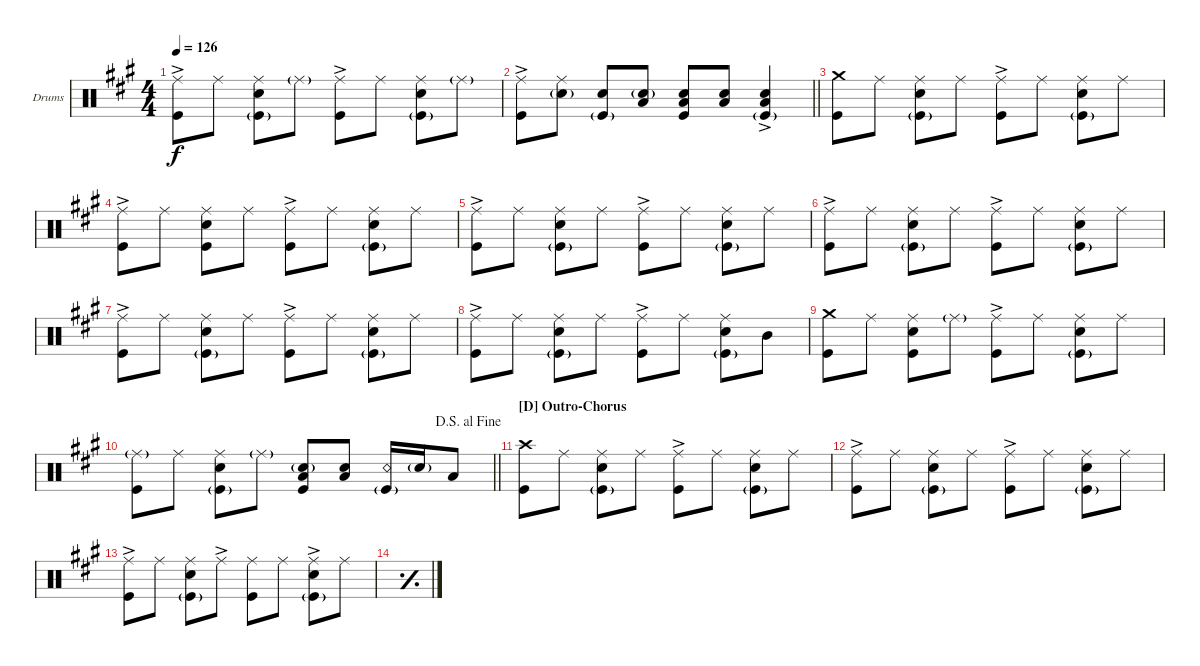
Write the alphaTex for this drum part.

\bracketExtendMode groupsimilarinstruments
\firstSystemTrackNameOrientation horizontal
\otherSystemsTrackNameOrientation horizontal
\track ("Drumkit" "Drums") {instrument percussion}
\staff {score}
\articulation defaults
\ts (4 4)
\tempo 126
\clef neutral
\ks a
("Ride (middle)"{ac} "Kick (hit)").8{dy f} "Ride (middle)".8 ("Ride (middle)" "Snare (hit) 2" "Kick (hit)"{g}).8 "Ride (middle)"{g}.8 ("Ride (middle)"{ac} "Kick (hit)").8 "Ride (middle)".8 ("Ride (middle)" "Snare (hit) 2" "Kick (hit)"{g}).8 "Ride (middle)"{g}.8 |
\barLineRight lightlight
("Ride (middle)"{ac} "Kick (hit)").8 ("Ride (middle)" "Snare (hit) 2"{g}).8 ("Snare (hit) 2" "Kick (hit)"{g}).8 ("Snare (hit) 2"{g} "Low Tom (hit)").8 ("Low Tom (hit)" "Snare (hit) 2" "Kick (hit)").8 ("Low Tom (hit)" "Snare (hit) 2").8 ("Low Tom (hit)"{ac} "Snare (hit) 2" "Kick (hit)"{g}).4 |
("Crash medium (hit)" "Kick (hit)").8 "Ride (middle)".8 ("Ride (middle)" "Snare (hit) 2" "Kick (hit)"{g}).8 "Ride (middle)".8 ("Ride (middle)"{ac} "Kick (hit)").8 "Ride (middle)".8 ("Ride (middle)" "Snare (hit) 2" "Kick (hit)"{g}).8 "Ride (middle)".8 |
("Ride (middle)"{ac} "Kick (hit)").8 "Ride (middle)".8 ("Ride (middle)" "Snare (hit) 2" "Kick (hit)").8 "Ride (middle)".8 ("Ride (middle)"{ac} "Kick (hit)").8 "Ride (middle)".8 ("Ride (middle)" "Snare (hit) 2" "Kick (hit)"{g}).8 "Ride (middle)".8 |
("Ride (middle)"{ac} "Kick (hit)").8 "Ride (middle)".8 ("Ride (middle)" "Snare (hit) 2" "Kick (hit)"{g}).8 "Ride (middle)".8 ("Ride (middle)"{ac} "Kick (hit)").8 "Ride (middle)".8 ("Ride (middle)" "Snare (hit) 2" "Kick (hit)"{g}).8 "Ride (middle)".8 |
("Ride (middle)"{ac} "Kick (hit)").8 "Ride (middle)".8 ("Ride (middle)" "Snare (hit) 2" "Kick (hit)"{g}).8 "Ride (middle)".8 ("Ride (middle)"{ac} "Kick (hit)").8 "Ride (middle)".8 ("Ride (middle)" "Snare (hit) 2" "Kick (hit)"{g}).8 "Ride (middle)".8 |
("Ride (middle)"{ac} "Kick (hit)").8 "Ride (middle)".8 ("Ride (middle)" "Snare (hit) 2" "Kick (hit)"{g}).8 "Ride (middle)".8 ("Ride (middle)"{ac} "Kick (hit)").8 "Ride (middle)".8 ("Ride (middle)" "Snare (hit) 2" "Kick (hit)"{g}).8 "Ride (middle)".8 |
("Ride (middle)"{ac} "Kick (hit)").8 "Ride (middle)".8 ("Ride (middle)" "Snare (hit) 2" "Kick (hit)"{g}).8 "Ride (middle)".8 ("Ride (middle)"{ac} "Kick (hit)").8 "Ride (middle)".8 ("Ride (middle)" "Snare (hit) 2" "Kick (hit)"{g}).8 "Mid Tom (hit)".8 |
("Kick (hit)" "Crash medium (hit)").8 "Ride (middle)".8 ("Ride (middle)" "Snare (hit) 2" "Kick (hit)").8 "Ride (middle)"{g}.8 ("Ride (middle)"{ac} "Kick (hit)").8 "Ride (middle)".8 ("Ride (middle)" "Snare (hit) 2" "Kick (hit)"{g}).8 "Ride (middle)".8 |
\jump dalsegnoalfine
\barLineRight lightlight
("Ride (middle)"{g} "Kick (hit)").8 "Ride (middle)".8 ("Ride (middle)" "Snare (hit) 2" "Kick (hit)"{g}).8 "Ride (middle)"{g}.8 ("Low Tom (hit)" "Snare (hit) 2"{g} "Kick (hit)").8 ("Low Tom (hit)" "Snare (hit) 2").8 ("Snare (rim shot)" "Kick (hit)"{g}).16 "Snare (hit) 2"{g}.16 "Low Tom (hit)".8 |
\section ("D" "Outro-Chorus")
("Crash high (hit)" "Kick (hit)").8 "Ride (middle)".8 ("Ride (middle)" "Snare (hit) 2" "Kick (hit)"{g}).8 "Ride (middle)".8 ("Ride (middle)"{ac} "Kick (hit)").8 "Ride (middle)".8 ("Ride (middle)" "Snare (hit) 2" "Kick (hit)"{g}).8 "Ride (middle)".8 |
("Ride (middle)"{ac} "Kick (hit)").8 "Ride (middle)".8 ("Ride (middle)" "Snare (hit) 2" "Kick (hit)"{g}).8 "Ride (middle)".8 ("Ride (middle)"{ac} "Kick (hit)").8 "Ride (middle)".8 ("Ride (middle)" "Snare (hit) 2" "Kick (hit)"{g}).8 "Ride (middle)".8 |
("Ride (middle)"{ac} "Kick (hit)").8 "Ride (middle)".8 ("Ride (middle)" "Snare (hit) 2" "Kick (hit)"{g}).8 "Ride (middle)"{ac}.8 ("Ride (middle)" "Kick (hit)").8 "Ride (middle)".8 ("Ride (middle)"{ac} "Snare (hit) 2" "Kick (hit)"{g}).8 "Ride (middle)".8 |
\simile simple
